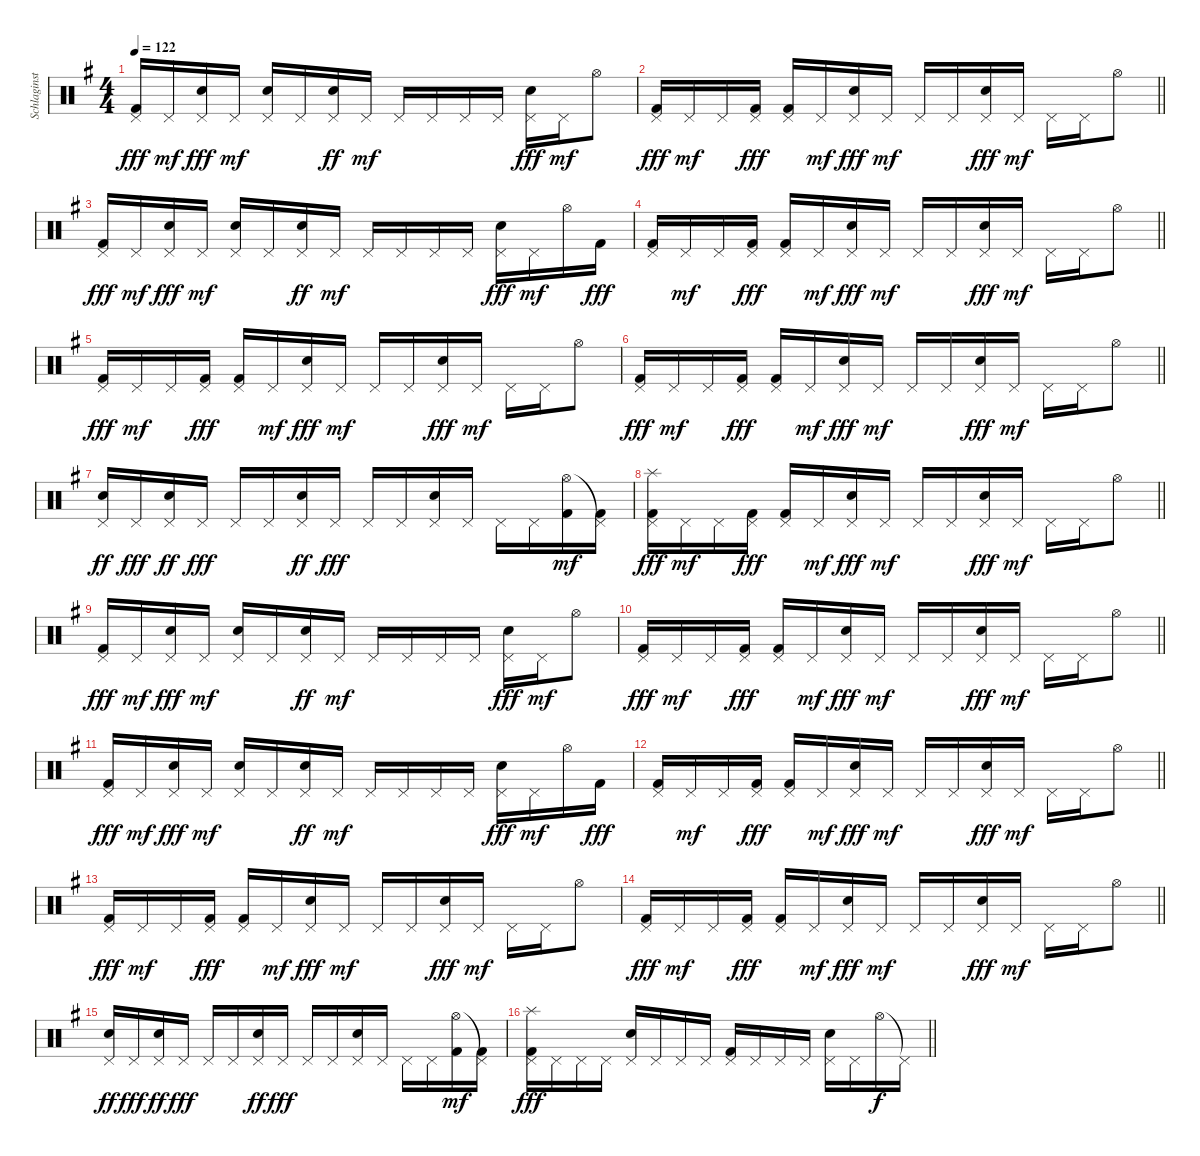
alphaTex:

\track ("Schlaginstrumente - Auswahl" "Schlaginst") {instrument percussion}
\staff {score}
\articulation defaults
\ts (4 4)
\tempo 122
\clef neutral
\ks g
("Pedal Hi-Hat (hit)" "Kick (hit) 2").16{dy fff} "Pedal Hi-Hat (hit)".16{dy mf} ("Pedal Hi-Hat (hit)" "Electric Snare (hit)").16{dy fff} "Pedal Hi-Hat (hit)".16{dy mf} ("Pedal Hi-Hat (hit)" "Electric Snare (hit)").16 "Pedal Hi-Hat (hit)".16 ("Pedal Hi-Hat (hit)" "Electric Snare (hit)").16{dy ff} "Pedal Hi-Hat (hit)".16{dy mf} "Pedal Hi-Hat (hit)".16 "Pedal Hi-Hat (hit)".16 "Pedal Hi-Hat (hit)".16 "Pedal Hi-Hat (hit)".16 ("Pedal Hi-Hat (hit)" "Electric Snare (hit)").16{dy fff} "Pedal Hi-Hat (hit)".16{dy mf} "Hi-Hat (open)".8 |
\barLineRight lightlight
("Pedal Hi-Hat (hit)" "Kick (hit) 2").16{dy fff} "Pedal Hi-Hat (hit)".16{dy mf} "Pedal Hi-Hat (hit)".16 ("Pedal Hi-Hat (hit)" "Kick (hit) 2").16{dy fff} ("Pedal Hi-Hat (hit)" "Kick (hit) 2").16 "Pedal Hi-Hat (hit)".16{dy mf} ("Pedal Hi-Hat (hit)" "Electric Snare (hit)").16{dy fff} "Pedal Hi-Hat (hit)".16{dy mf} "Pedal Hi-Hat (hit)".16 "Pedal Hi-Hat (hit)".16 ("Pedal Hi-Hat (hit)" "Electric Snare (hit)").16{dy fff} "Pedal Hi-Hat (hit)".16{dy mf} "Pedal Hi-Hat (hit)".16 "Pedal Hi-Hat (hit)".16 "Hi-Hat (open)".8 |
("Pedal Hi-Hat (hit)" "Kick (hit) 2").16{dy fff} "Pedal Hi-Hat (hit)".16{dy mf} ("Pedal Hi-Hat (hit)" "Electric Snare (hit)").16{dy fff} "Pedal Hi-Hat (hit)".16{dy mf} ("Pedal Hi-Hat (hit)" "Electric Snare (hit)").16 "Pedal Hi-Hat (hit)".16 ("Pedal Hi-Hat (hit)" "Electric Snare (hit)").16{dy ff} "Pedal Hi-Hat (hit)".16{dy mf} "Pedal Hi-Hat (hit)".16 "Pedal Hi-Hat (hit)".16 "Pedal Hi-Hat (hit)".16 "Pedal Hi-Hat (hit)".16 ("Pedal Hi-Hat (hit)" "Electric Snare (hit)").16{dy fff} "Pedal Hi-Hat (hit)".16{dy mf} "Hi-Hat (open)".16 "Kick (hit) 2".16{dy fff} |
\barLineRight lightlight
("Pedal Hi-Hat (hit)" "Kick (hit) 2").16 "Pedal Hi-Hat (hit)".16{dy mf} "Pedal Hi-Hat (hit)".16 ("Pedal Hi-Hat (hit)" "Kick (hit) 2").16{dy fff} ("Pedal Hi-Hat (hit)" "Kick (hit) 2").16 "Pedal Hi-Hat (hit)".16{dy mf} ("Pedal Hi-Hat (hit)" "Electric Snare (hit)").16{dy fff} "Pedal Hi-Hat (hit)".16{dy mf} "Pedal Hi-Hat (hit)".16 "Pedal Hi-Hat (hit)".16 ("Pedal Hi-Hat (hit)" "Electric Snare (hit)").16{dy fff} "Pedal Hi-Hat (hit)".16{dy mf} "Pedal Hi-Hat (hit)".16 "Pedal Hi-Hat (hit)".16 "Hi-Hat (open)".8 |
("Pedal Hi-Hat (hit)" "Kick (hit) 2").16{dy fff} "Pedal Hi-Hat (hit)".16{dy mf} "Pedal Hi-Hat (hit)".16 ("Pedal Hi-Hat (hit)" "Kick (hit) 2").16{dy fff} ("Pedal Hi-Hat (hit)" "Kick (hit) 2").16 "Pedal Hi-Hat (hit)".16{dy mf} ("Pedal Hi-Hat (hit)" "Electric Snare (hit)").16{dy fff} "Pedal Hi-Hat (hit)".16{dy mf} "Pedal Hi-Hat (hit)".16 "Pedal Hi-Hat (hit)".16 ("Pedal Hi-Hat (hit)" "Electric Snare (hit)").16{dy fff} "Pedal Hi-Hat (hit)".16{dy mf} "Pedal Hi-Hat (hit)".16 "Pedal Hi-Hat (hit)".16 "Hi-Hat (open)".8 |
\barLineRight lightlight
("Pedal Hi-Hat (hit)" "Kick (hit) 2").16{dy fff} "Pedal Hi-Hat (hit)".16{dy mf} "Pedal Hi-Hat (hit)".16 ("Pedal Hi-Hat (hit)" "Kick (hit) 2").16{dy fff} ("Pedal Hi-Hat (hit)" "Kick (hit) 2").16 "Pedal Hi-Hat (hit)".16{dy mf} ("Pedal Hi-Hat (hit)" "Electric Snare (hit)").16{dy fff} "Pedal Hi-Hat (hit)".16{dy mf} "Pedal Hi-Hat (hit)".16 "Pedal Hi-Hat (hit)".16 ("Pedal Hi-Hat (hit)" "Electric Snare (hit)").16{dy fff} "Pedal Hi-Hat (hit)".16{dy mf} "Pedal Hi-Hat (hit)".16 "Pedal Hi-Hat (hit)".16 "Hi-Hat (open)".8 |
("Pedal Hi-Hat (hit)" "Electric Snare (hit)").16{dy ff} "Pedal Hi-Hat (hit)".16{dy fff} ("Pedal Hi-Hat (hit)" "Electric Snare (hit)").16{dy ff} "Pedal Hi-Hat (hit)".16{dy fff} "Pedal Hi-Hat (hit)".16 "Pedal Hi-Hat (hit)".16 ("Pedal Hi-Hat (hit)" "Electric Snare (hit)").16{dy ff} "Pedal Hi-Hat (hit)".16{dy fff} "Pedal Hi-Hat (hit)".16 "Pedal Hi-Hat (hit)".16 ("Pedal Hi-Hat (hit)" "Electric Snare (hit)").16 "Pedal Hi-Hat (hit)".16 "Pedal Hi-Hat (hit)".16 "Pedal Hi-Hat (hit)".16 ("Hi-Hat (open)" "Kick (hit) 2").16{dy mf} ("Pedal Hi-Hat (hit)"{t} "Kick (hit) 2").16 |
\barLineRight lightlight
("Splash (hit)" "Pedal Hi-Hat (hit)" "Kick (hit) 2").16{dy fff} "Pedal Hi-Hat (hit)".16{dy mf} "Pedal Hi-Hat (hit)".16 ("Pedal Hi-Hat (hit)" "Kick (hit) 2").16{dy fff} ("Pedal Hi-Hat (hit)" "Kick (hit) 2").16 "Pedal Hi-Hat (hit)".16{dy mf} ("Pedal Hi-Hat (hit)" "Electric Snare (hit)").16{dy fff} "Pedal Hi-Hat (hit)".16{dy mf} "Pedal Hi-Hat (hit)".16 "Pedal Hi-Hat (hit)".16 ("Pedal Hi-Hat (hit)" "Electric Snare (hit)").16{dy fff} "Pedal Hi-Hat (hit)".16{dy mf} "Pedal Hi-Hat (hit)".16 "Pedal Hi-Hat (hit)".16 "Hi-Hat (open)".8 |
("Pedal Hi-Hat (hit)" "Kick (hit) 2").16{dy fff} "Pedal Hi-Hat (hit)".16{dy mf} ("Pedal Hi-Hat (hit)" "Electric Snare (hit)").16{dy fff} "Pedal Hi-Hat (hit)".16{dy mf} ("Pedal Hi-Hat (hit)" "Electric Snare (hit)").16 "Pedal Hi-Hat (hit)".16 ("Pedal Hi-Hat (hit)" "Electric Snare (hit)").16{dy ff} "Pedal Hi-Hat (hit)".16{dy mf} "Pedal Hi-Hat (hit)".16 "Pedal Hi-Hat (hit)".16 "Pedal Hi-Hat (hit)".16 "Pedal Hi-Hat (hit)".16 ("Pedal Hi-Hat (hit)" "Electric Snare (hit)").16{dy fff} "Pedal Hi-Hat (hit)".16{dy mf} "Hi-Hat (open)".8 |
\barLineRight lightlight
("Pedal Hi-Hat (hit)" "Kick (hit) 2").16{dy fff} "Pedal Hi-Hat (hit)".16{dy mf} "Pedal Hi-Hat (hit)".16 ("Pedal Hi-Hat (hit)" "Kick (hit) 2").16{dy fff} ("Pedal Hi-Hat (hit)" "Kick (hit) 2").16 "Pedal Hi-Hat (hit)".16{dy mf} ("Pedal Hi-Hat (hit)" "Electric Snare (hit)").16{dy fff} "Pedal Hi-Hat (hit)".16{dy mf} "Pedal Hi-Hat (hit)".16 "Pedal Hi-Hat (hit)".16 ("Pedal Hi-Hat (hit)" "Electric Snare (hit)").16{dy fff} "Pedal Hi-Hat (hit)".16{dy mf} "Pedal Hi-Hat (hit)".16 "Pedal Hi-Hat (hit)".16 "Hi-Hat (open)".8 |
("Pedal Hi-Hat (hit)" "Kick (hit) 2").16{dy fff} "Pedal Hi-Hat (hit)".16{dy mf} ("Pedal Hi-Hat (hit)" "Electric Snare (hit)").16{dy fff} "Pedal Hi-Hat (hit)".16{dy mf} ("Pedal Hi-Hat (hit)" "Electric Snare (hit)").16 "Pedal Hi-Hat (hit)".16 ("Pedal Hi-Hat (hit)" "Electric Snare (hit)").16{dy ff} "Pedal Hi-Hat (hit)".16{dy mf} "Pedal Hi-Hat (hit)".16 "Pedal Hi-Hat (hit)".16 "Pedal Hi-Hat (hit)".16 "Pedal Hi-Hat (hit)".16 ("Pedal Hi-Hat (hit)" "Electric Snare (hit)").16{dy fff} "Pedal Hi-Hat (hit)".16{dy mf} "Hi-Hat (open)".16 "Kick (hit) 2".16{dy fff} |
\barLineRight lightlight
("Pedal Hi-Hat (hit)" "Kick (hit) 2").16 "Pedal Hi-Hat (hit)".16{dy mf} "Pedal Hi-Hat (hit)".16 ("Pedal Hi-Hat (hit)" "Kick (hit) 2").16{dy fff} ("Pedal Hi-Hat (hit)" "Kick (hit) 2").16 "Pedal Hi-Hat (hit)".16{dy mf} ("Pedal Hi-Hat (hit)" "Electric Snare (hit)").16{dy fff} "Pedal Hi-Hat (hit)".16{dy mf} "Pedal Hi-Hat (hit)".16 "Pedal Hi-Hat (hit)".16 ("Pedal Hi-Hat (hit)" "Electric Snare (hit)").16{dy fff} "Pedal Hi-Hat (hit)".16{dy mf} "Pedal Hi-Hat (hit)".16 "Pedal Hi-Hat (hit)".16 "Hi-Hat (open)".8 |
("Pedal Hi-Hat (hit)" "Kick (hit) 2").16{dy fff} "Pedal Hi-Hat (hit)".16{dy mf} "Pedal Hi-Hat (hit)".16 ("Pedal Hi-Hat (hit)" "Kick (hit) 2").16{dy fff} ("Pedal Hi-Hat (hit)" "Kick (hit) 2").16 "Pedal Hi-Hat (hit)".16{dy mf} ("Pedal Hi-Hat (hit)" "Electric Snare (hit)").16{dy fff} "Pedal Hi-Hat (hit)".16{dy mf} "Pedal Hi-Hat (hit)".16 "Pedal Hi-Hat (hit)".16 ("Pedal Hi-Hat (hit)" "Electric Snare (hit)").16{dy fff} "Pedal Hi-Hat (hit)".16{dy mf} "Pedal Hi-Hat (hit)".16 "Pedal Hi-Hat (hit)".16 "Hi-Hat (open)".8 |
\barLineRight lightlight
("Pedal Hi-Hat (hit)" "Kick (hit) 2").16{dy fff} "Pedal Hi-Hat (hit)".16{dy mf} "Pedal Hi-Hat (hit)".16 ("Pedal Hi-Hat (hit)" "Kick (hit) 2").16{dy fff} ("Pedal Hi-Hat (hit)" "Kick (hit) 2").16 "Pedal Hi-Hat (hit)".16{dy mf} ("Pedal Hi-Hat (hit)" "Electric Snare (hit)").16{dy fff} "Pedal Hi-Hat (hit)".16{dy mf} "Pedal Hi-Hat (hit)".16 "Pedal Hi-Hat (hit)".16 ("Pedal Hi-Hat (hit)" "Electric Snare (hit)").16{dy fff} "Pedal Hi-Hat (hit)".16{dy mf} "Pedal Hi-Hat (hit)".16 "Pedal Hi-Hat (hit)".16 "Hi-Hat (open)".8 |
("Pedal Hi-Hat (hit)" "Electric Snare (hit)").16{dy ff} "Pedal Hi-Hat (hit)".16{dy fff} ("Pedal Hi-Hat (hit)" "Electric Snare (hit)").16{dy ff} "Pedal Hi-Hat (hit)".16{dy fff} "Pedal Hi-Hat (hit)".16 "Pedal Hi-Hat (hit)".16 ("Pedal Hi-Hat (hit)" "Electric Snare (hit)").16{dy ff} "Pedal Hi-Hat (hit)".16{dy fff} "Pedal Hi-Hat (hit)".16 "Pedal Hi-Hat (hit)".16 ("Pedal Hi-Hat (hit)" "Electric Snare (hit)").16 "Pedal Hi-Hat (hit)".16 "Pedal Hi-Hat (hit)".16 "Pedal Hi-Hat (hit)".16 ("Hi-Hat (open)" "Kick (hit) 2").16{dy mf} ("Pedal Hi-Hat (hit)"{t} "Kick (hit) 2").16 |
\barLineRight lightlight
("Splash (hit)" "Pedal Hi-Hat (hit)" "Kick (hit) 2").16{dy fff} "Pedal Hi-Hat (hit)".16 "Pedal Hi-Hat (hit)".16 "Pedal Hi-Hat (hit)".16 ("Pedal Hi-Hat (hit)" "Electric Snare (hit)").16 "Pedal Hi-Hat (hit)".16 "Pedal Hi-Hat (hit)".16 "Pedal Hi-Hat (hit)".16 ("Pedal Hi-Hat (hit)" "Kick (hit) 2").16 "Pedal Hi-Hat (hit)".16 "Pedal Hi-Hat (hit)".16 "Pedal Hi-Hat (hit)".16 ("Pedal Hi-Hat (hit)" "Electric Snare (hit)").16 "Pedal Hi-Hat (hit)".16 "Hi-Hat (open)".16{dy f} "Pedal Hi-Hat (hit)"{t}.16
